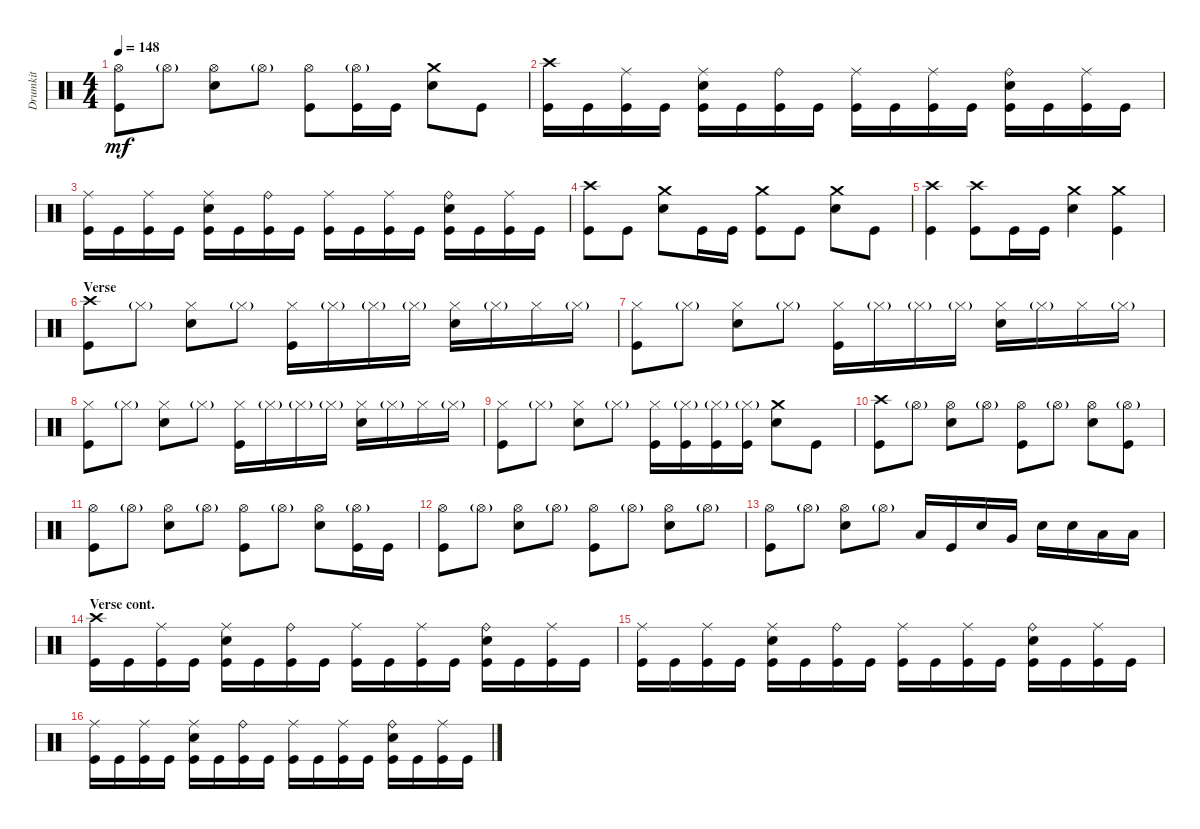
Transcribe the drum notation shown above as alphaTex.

\track ("Drumkit" "Drumkit") {instrument percussion}
\staff {score}
\articulation defaults
\ts (4 4)
\tempo 148
\clef neutral
\ks c
("Kick (hit)" "Hi-Hat (open)").8{dy mf} "Hi-Hat (open)"{g}.8 ("Hi-Hat (open)" "Snare (hit) 2").8 "Hi-Hat (open)"{g}.8 ("Hi-Hat (open)" "Kick (hit)").8 ("Hi-Hat (open)"{g} "Kick (hit)").16 "Kick (hit)".16 ("Snare (hit) 2" "Crash medium (hit)").8 "Kick (hit)".8 |
("Kick (hit)" "Crash high (hit)").16 "Kick (hit)".16 ("Kick (hit)" "Ride (middle)").16 "Kick (hit)".16 ("Kick (hit)" "Ride (middle)" "Snare (hit) 2").16 "Kick (hit)".16 ("Kick (hit)" "Ride (bell)").16 "Kick (hit)".16 ("Kick (hit)" "Ride (middle)").16 "Kick (hit)".16 ("Kick (hit)" "Ride (middle)").16 "Kick (hit)".16 ("Kick (hit)" "Ride (bell)" "Snare (hit) 2").16 "Kick (hit)".16 ("Kick (hit)" "Ride (middle)").16 "Kick (hit)".16 |
("Kick (hit)" "Ride (middle)").16 "Kick (hit)".16 ("Kick (hit)" "Ride (middle)").16 "Kick (hit)".16 ("Kick (hit)" "Ride (middle)" "Snare (hit) 2").16 "Kick (hit)".16 ("Kick (hit)" "Ride (bell)").16 "Kick (hit)".16 ("Kick (hit)" "Ride (middle)").16 "Kick (hit)".16 ("Kick (hit)" "Ride (middle)").16 "Kick (hit)".16 ("Kick (hit)" "Ride (bell)" "Snare (hit) 2").16 "Kick (hit)".16 ("Kick (hit)" "Ride (middle)").16 "Kick (hit)".16 |
("Kick (hit)" "Crash high (hit)").8 "Kick (hit)".8 ("Snare (hit) 2" "Crash medium (hit)").8 "Kick (hit)".16 "Kick (hit)".16 ("Kick (hit)" "Crash medium (hit)").8 "Kick (hit)".8 ("Snare (hit) 2" "Crash medium (hit)").8 "Kick (hit)".8 |
("Kick (hit)" "Crash high (hit)").4 ("Kick (hit)" "Crash high (hit)").8 "Kick (hit)".16 "Kick (hit)".16 ("Snare (hit) 2" "Crash medium (hit)").4 ("Kick (hit)" "Crash medium (hit)").4 |
\section ("" "Verse")
("Crash high (hit)" "Kick (hit)").8 "Hi-Hat (closed)"{g}.8 ("Hi-Hat (closed)" "Snare (hit) 2").8 "Hi-Hat (closed)"{g}.8 ("Hi-Hat (closed)" "Kick (hit)").16 "Hi-Hat (closed)"{g}.16 "Hi-Hat (closed)"{g}.16 "Hi-Hat (closed)"{g}.16 ("Hi-Hat (closed)" "Snare (hit) 2").16 "Hi-Hat (closed)"{g}.16 "Hi-Hat (closed)".16 "Hi-Hat (closed)"{g}.16 |
("Kick (hit)" "Hi-Hat (closed)").8 "Hi-Hat (closed)"{g}.8 ("Hi-Hat (closed)" "Snare (hit) 2").8 "Hi-Hat (closed)"{g}.8 ("Hi-Hat (closed)" "Kick (hit)").16 "Hi-Hat (closed)"{g}.16 "Hi-Hat (closed)"{g}.16 "Hi-Hat (closed)"{g}.16 ("Hi-Hat (closed)" "Snare (hit) 2").16 "Hi-Hat (closed)"{g}.16 "Hi-Hat (closed)".16 "Hi-Hat (closed)"{g}.16 |
("Kick (hit)" "Hi-Hat (closed)").8 "Hi-Hat (closed)"{g}.8 ("Hi-Hat (closed)" "Snare (hit) 2").8 "Hi-Hat (closed)"{g}.8 ("Hi-Hat (closed)" "Kick (hit)").16 "Hi-Hat (closed)"{g}.16 "Hi-Hat (closed)"{g}.16 "Hi-Hat (closed)"{g}.16 ("Hi-Hat (closed)" "Snare (hit) 2").16 "Hi-Hat (closed)"{g}.16 "Hi-Hat (closed)".16 "Hi-Hat (closed)"{g}.16 |
("Kick (hit)" "Hi-Hat (closed)").8 "Hi-Hat (closed)"{g}.8 ("Hi-Hat (closed)" "Snare (hit) 2").8 "Hi-Hat (closed)"{g}.8 ("Hi-Hat (closed)" "Kick (hit)").16 ("Hi-Hat (closed)"{g} "Kick (hit)").16 ("Hi-Hat (closed)"{g} "Kick (hit)").16 ("Hi-Hat (closed)"{g} "Kick (hit)").16 ("Snare (hit) 2" "Crash medium (hit)").8 "Kick (hit)".8 |
("Crash high (hit)" "Kick (hit)").8 "Hi-Hat (open)"{g}.8 ("Hi-Hat (open)" "Snare (hit) 2").8 "Hi-Hat (open)"{g}.8 ("Hi-Hat (open)" "Kick (hit)").8 "Hi-Hat (open)"{g}.8 ("Hi-Hat (open)" "Snare (hit) 2").8 ("Hi-Hat (open)"{g} "Kick (hit)").8 |
("Kick (hit)" "Hi-Hat (open)").8 "Hi-Hat (open)"{g}.8 ("Hi-Hat (open)" "Snare (hit) 2").8 "Hi-Hat (open)"{g}.8 ("Hi-Hat (open)" "Kick (hit)").8 "Hi-Hat (open)"{g}.8 ("Hi-Hat (open)" "Snare (hit) 2").8 ("Hi-Hat (open)"{g} "Kick (hit)").16 "Kick (hit)".16 |
("Kick (hit)" "Hi-Hat (open)").8 "Hi-Hat (open)"{g}.8 ("Hi-Hat (open)" "Snare (hit) 2").8 "Hi-Hat (open)"{g}.8 ("Hi-Hat (open)" "Kick (hit)").8 "Hi-Hat (open)"{g}.8 ("Hi-Hat (open)" "Snare (hit) 2").8 "Hi-Hat (open)"{g}.8 |
("Kick (hit)" "Hi-Hat (open)").8 "Hi-Hat (open)"{g}.8 ("Hi-Hat (open)" "Snare (hit) 2").8 "Hi-Hat (open)"{g}.8 "Low Tom (hit)".16 "Kick (hit)".16 "Snare (hit) 2".16 "Very Low Tom (hit)".16 "Snare (hit) 2".16 "Snare (hit) 2".16 "Low Floor Tom (hit)".16 "Low Floor Tom (hit)".16 |
\section ("" "Verse cont.")
("Kick (hit)" "Crash high (hit)").16 "Kick (hit)".16 ("Kick (hit)" "Ride (middle)").16 "Kick (hit)".16 ("Kick (hit)" "Ride (middle)" "Snare (hit) 2").16 "Kick (hit)".16 ("Kick (hit)" "Ride (bell)").16 "Kick (hit)".16 ("Kick (hit)" "Ride (middle)").16 "Kick (hit)".16 ("Kick (hit)" "Ride (middle)").16 "Kick (hit)".16 ("Kick (hit)" "Ride (bell)" "Snare (hit) 2").16 "Kick (hit)".16 ("Kick (hit)" "Ride (middle)").16 "Kick (hit)".16 |
("Kick (hit)" "Ride (middle)").16 "Kick (hit)".16 ("Kick (hit)" "Ride (middle)").16 "Kick (hit)".16 ("Kick (hit)" "Ride (middle)" "Snare (hit) 2").16 "Kick (hit)".16 ("Kick (hit)" "Ride (bell)").16 "Kick (hit)".16 ("Kick (hit)" "Ride (middle)").16 "Kick (hit)".16 ("Kick (hit)" "Ride (middle)").16 "Kick (hit)".16 ("Kick (hit)" "Ride (bell)" "Snare (hit) 2").16 "Kick (hit)".16 ("Kick (hit)" "Ride (middle)").16 "Kick (hit)".16 |
("Kick (hit)" "Ride (middle)").16 "Kick (hit)".16 ("Kick (hit)" "Ride (middle)").16 "Kick (hit)".16 ("Kick (hit)" "Ride (middle)" "Snare (hit) 2").16 "Kick (hit)".16 ("Kick (hit)" "Ride (bell)").16 "Kick (hit)".16 ("Kick (hit)" "Ride (middle)").16 "Kick (hit)".16 ("Kick (hit)" "Ride (middle)").16 "Kick (hit)".16 ("Kick (hit)" "Ride (bell)" "Snare (hit) 2").16 "Kick (hit)".16 ("Kick (hit)" "Ride (middle)").16 "Kick (hit)".16
